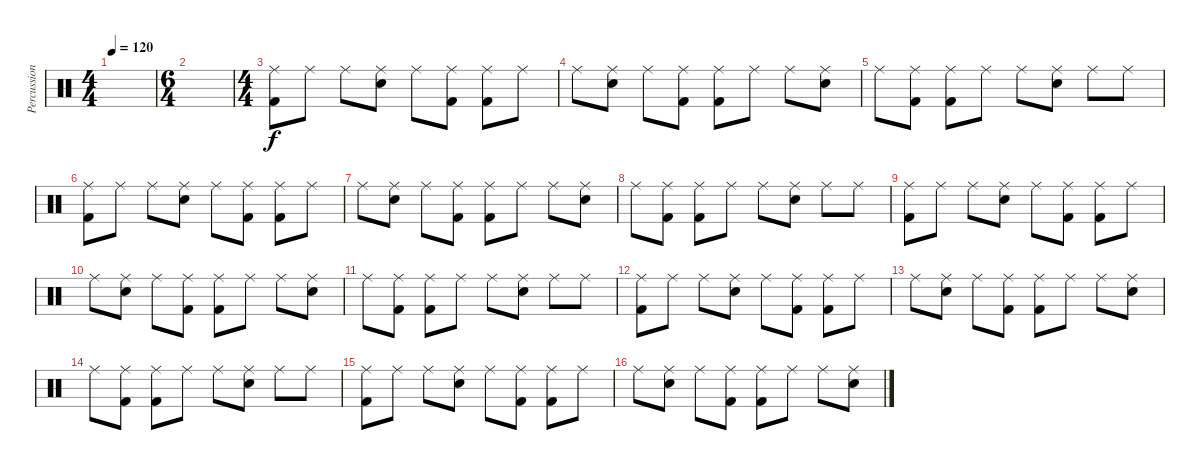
\track ("Percussions" "Percussion") {instrument percussion}
\staff {score}
\articulation defaults
\ts (4 4)
\tempo 120
\clef neutral
\ks c
|
\ts (6 4)
|
\ts (4 4)
("Kick (hit) 2" "Ride (middle)").8 "Ride (middle)".8 "Ride (middle)".8 ("Electric Snare (hit)" "Ride (middle)").8 "Ride (middle)".8 ("Kick (hit) 2" "Ride (middle)").8 ("Kick (hit) 2" "Ride (middle)").8 "Ride (middle)".8 |
"Ride (middle)".8 ("Electric Snare (hit)" "Ride (middle)").8 "Ride (middle)".8 ("Kick (hit) 2" "Ride (middle)").8 ("Kick (hit) 2" "Ride (middle)").8 "Ride (middle)".8 "Ride (middle)".8 ("Electric Snare (hit)" "Ride (middle)").8 |
"Ride (middle)".8 ("Kick (hit) 2" "Ride (middle)").8 ("Kick (hit) 2" "Ride (middle)").8 "Ride (middle)".8 "Ride (middle)".8 ("Electric Snare (hit)" "Ride (middle)").8 "Ride (middle)".8 "Ride (middle)".8 |
("Kick (hit) 2" "Ride (middle)").8 "Ride (middle)".8 "Ride (middle)".8 ("Electric Snare (hit)" "Ride (middle)").8 "Ride (middle)".8 ("Kick (hit) 2" "Ride (middle)").8 ("Kick (hit) 2" "Ride (middle)").8 "Ride (middle)".8 |
"Ride (middle)".8 ("Electric Snare (hit)" "Ride (middle)").8 "Ride (middle)".8 ("Kick (hit) 2" "Ride (middle)").8 ("Kick (hit) 2" "Ride (middle)").8 "Ride (middle)".8 "Ride (middle)".8 ("Electric Snare (hit)" "Ride (middle)").8 |
"Ride (middle)".8 ("Kick (hit) 2" "Ride (middle)").8 ("Kick (hit) 2" "Ride (middle)").8 "Ride (middle)".8 "Ride (middle)".8 ("Electric Snare (hit)" "Ride (middle)").8 "Ride (middle)".8 "Ride (middle)".8 |
("Kick (hit) 2" "Ride (middle)").8 "Ride (middle)".8 "Ride (middle)".8 ("Electric Snare (hit)" "Ride (middle)").8 "Ride (middle)".8 ("Kick (hit) 2" "Ride (middle)").8 ("Kick (hit) 2" "Ride (middle)").8 "Ride (middle)".8 |
"Ride (middle)".8 ("Electric Snare (hit)" "Ride (middle)").8 "Ride (middle)".8 ("Kick (hit) 2" "Ride (middle)").8 ("Kick (hit) 2" "Ride (middle)").8 "Ride (middle)".8 "Ride (middle)".8 ("Electric Snare (hit)" "Ride (middle)").8 |
"Ride (middle)".8 ("Kick (hit) 2" "Ride (middle)").8 ("Kick (hit) 2" "Ride (middle)").8 "Ride (middle)".8 "Ride (middle)".8 ("Electric Snare (hit)" "Ride (middle)").8 "Ride (middle)".8 "Ride (middle)".8 |
("Kick (hit) 2" "Ride (middle)").8 "Ride (middle)".8 "Ride (middle)".8 ("Electric Snare (hit)" "Ride (middle)").8 "Ride (middle)".8 ("Kick (hit) 2" "Ride (middle)").8 ("Kick (hit) 2" "Ride (middle)").8 "Ride (middle)".8 |
"Ride (middle)".8 ("Electric Snare (hit)" "Ride (middle)").8 "Ride (middle)".8 ("Kick (hit) 2" "Ride (middle)").8 ("Kick (hit) 2" "Ride (middle)").8 "Ride (middle)".8 "Ride (middle)".8 ("Electric Snare (hit)" "Ride (middle)").8 |
"Ride (middle)".8 ("Kick (hit) 2" "Ride (middle)").8 ("Kick (hit) 2" "Ride (middle)").8 "Ride (middle)".8 "Ride (middle)".8 ("Electric Snare (hit)" "Ride (middle)").8 "Ride (middle)".8 "Ride (middle)".8 |
("Kick (hit) 2" "Ride (middle)").8 "Ride (middle)".8 "Ride (middle)".8 ("Electric Snare (hit)" "Ride (middle)").8 "Ride (middle)".8 ("Kick (hit) 2" "Ride (middle)").8 ("Kick (hit) 2" "Ride (middle)").8 "Ride (middle)".8 |
"Ride (middle)".8 ("Electric Snare (hit)" "Ride (middle)").8 "Ride (middle)".8 ("Kick (hit) 2" "Ride (middle)").8 ("Kick (hit) 2" "Ride (middle)").8 "Ride (middle)".8 "Ride (middle)".8 ("Electric Snare (hit)" "Ride (middle)").8
